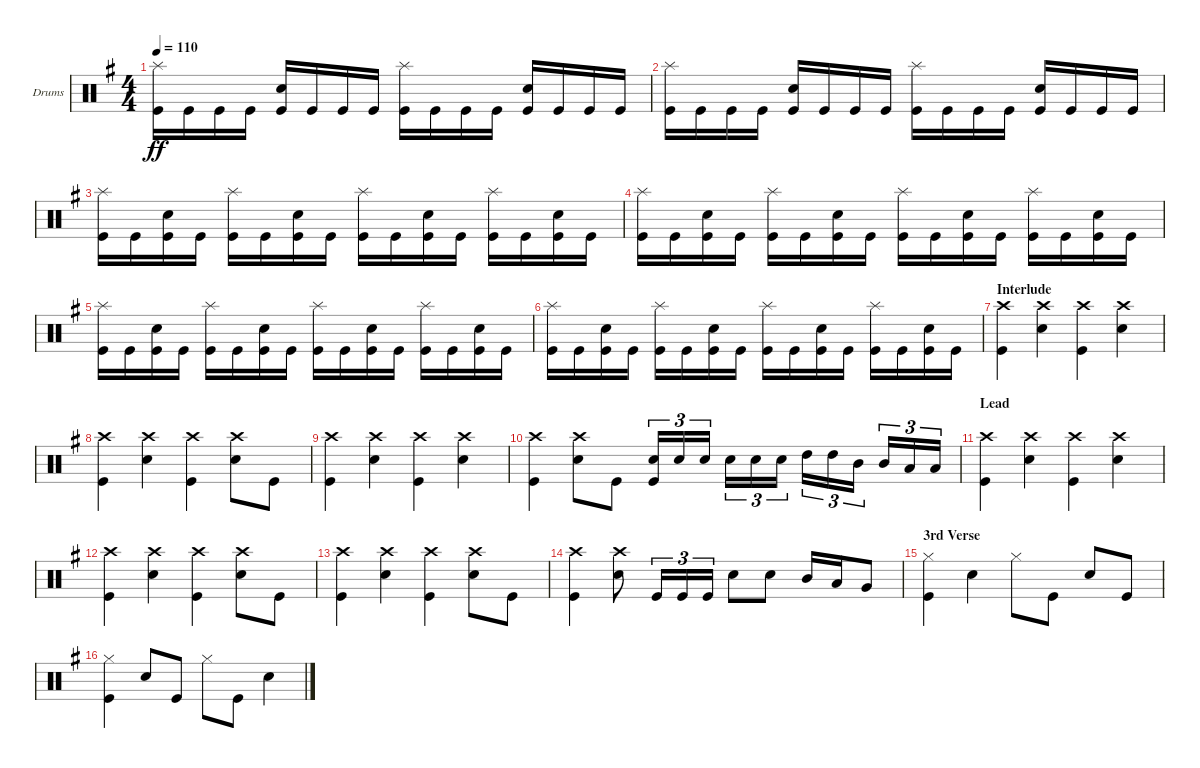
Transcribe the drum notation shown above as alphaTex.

\defaultSystemsLayout 4
\bracketExtendMode groupsimilarinstruments
\firstSystemTrackNameOrientation horizontal
\otherSystemsTrackNameOrientation horizontal
\track ("Drums" "Drums") {instrument percussion}
\staff {score}
\articulation defaults
\ts (4 4)
\tempo 110
\clef neutral
\ks eminor
("Kick (hit)" "Splash (hit)").16{dy ff} "Kick (hit)".16 "Kick (hit)".16 "Kick (hit)".16 ("Kick (hit)" "Snare (hit) 2").16 "Kick (hit)".16 "Kick (hit)".16 "Kick (hit)".16 ("Kick (hit)" "Splash (hit)").16 "Kick (hit)".16 "Kick (hit)".16 "Kick (hit)".16 ("Kick (hit)" "Snare (hit) 2").16 "Kick (hit)".16 "Kick (hit)".16 "Kick (hit)".16 |
("Kick (hit)" "Splash (hit)").16 "Kick (hit)".16 "Kick (hit)".16 "Kick (hit)".16 ("Kick (hit)" "Snare (hit) 2").16 "Kick (hit)".16 "Kick (hit)".16 "Kick (hit)".16 ("Kick (hit)" "Splash (hit)").16 "Kick (hit)".16 "Kick (hit)".16 "Kick (hit)".16 ("Kick (hit)" "Snare (hit) 2").16 "Kick (hit)".16 "Kick (hit)".16 "Kick (hit)".16 |
("Kick (hit)" "Splash (hit)").16 "Kick (hit)".16 ("Kick (hit)" "Snare (hit) 2").16 "Kick (hit)".16 ("Kick (hit)" "Splash (hit)").16 "Kick (hit)".16 ("Kick (hit)" "Snare (hit) 2").16 "Kick (hit)".16 ("Kick (hit)" "Splash (hit)").16 "Kick (hit)".16 ("Kick (hit)" "Snare (hit) 2").16 "Kick (hit)".16 ("Kick (hit)" "Splash (hit)").16 "Kick (hit)".16 ("Kick (hit)" "Snare (hit) 2").16 "Kick (hit)".16 |
("Kick (hit)" "Splash (hit)").16 "Kick (hit)".16 ("Kick (hit)" "Snare (hit) 2").16 "Kick (hit)".16 ("Kick (hit)" "Splash (hit)").16 "Kick (hit)".16 ("Kick (hit)" "Snare (hit) 2").16 "Kick (hit)".16 ("Kick (hit)" "Splash (hit)").16 "Kick (hit)".16 ("Kick (hit)" "Snare (hit) 2").16 "Kick (hit)".16 ("Kick (hit)" "Splash (hit)").16 "Kick (hit)".16 ("Kick (hit)" "Snare (hit) 2").16 "Kick (hit)".16 |
("Kick (hit)" "Splash (hit)").16 "Kick (hit)".16 ("Kick (hit)" "Snare (hit) 2").16 "Kick (hit)".16 ("Kick (hit)" "Splash (hit)").16 "Kick (hit)".16 ("Kick (hit)" "Snare (hit) 2").16 "Kick (hit)".16 ("Kick (hit)" "Splash (hit)").16 "Kick (hit)".16 ("Kick (hit)" "Snare (hit) 2").16 "Kick (hit)".16 ("Kick (hit)" "Splash (hit)").16 "Kick (hit)".16 ("Kick (hit)" "Snare (hit) 2").16 "Kick (hit)".16 |
("Kick (hit)" "Splash (hit)").16 "Kick (hit)".16 ("Kick (hit)" "Snare (hit) 2").16 "Kick (hit)".16 ("Kick (hit)" "Splash (hit)").16 "Kick (hit)".16 ("Kick (hit)" "Snare (hit) 2").16 "Kick (hit)".16 ("Kick (hit)" "Splash (hit)").16 "Kick (hit)".16 ("Kick (hit)" "Snare (hit) 2").16 "Kick (hit)".16 ("Kick (hit)" "Splash (hit)").16 "Kick (hit)".16 ("Kick (hit)" "Snare (hit) 2").16 "Kick (hit)".16 |
\section ("" "Interlude")
("Kick (hit)" "Crash high (hit)").4 ("Snare (hit) 2" "Crash high (hit)").4 ("Kick (hit)" "Crash high (hit)").4 ("Snare (hit) 2" "Crash high (hit)").4 |
("Kick (hit)" "Crash high (hit)").4 ("Crash high (hit)" "Snare (hit) 2").4 ("Kick (hit)" "Crash high (hit)").4 ("Crash high (hit)" "Snare (hit) 2").8 "Kick (hit)".8 |
("Kick (hit)" "Crash high (hit)").4 ("Crash high (hit)" "Snare (hit) 2").4 ("Kick (hit)" "Crash high (hit)").4 ("Crash high (hit)" "Snare (hit) 2").4 |
("Kick (hit)" "Crash high (hit)").4 ("Crash high (hit)" "Snare (hit) 2").8 "Kick (hit)".8 ("Snare (hit) 2" "Kick (hit)").16{tu (3 2)} "Snare (hit) 2".16{tu (3 2)} "Snare (hit) 2".16{tu (3 2)} "Snare (hit) 2".16{tu (3 2)} "Snare (hit) 2".16{tu (3 2)} "Snare (hit) 2".16{tu (3 2)} "High Tom (hit)".16{tu (3 2)} "High Tom (hit)".16{tu (3 2)} "Mid Tom (hit)".16{tu (3 2)} "Mid Tom (hit)".16{tu (3 2)} "Low Tom (hit)".16{tu (3 2)} "Low Tom (hit)".16{tu (3 2)} |
\section ("" "Lead")
("Kick (hit)" "Crash high (hit)").4 ("Snare (hit) 2" "Crash high (hit)").4 ("Kick (hit)" "Crash high (hit)").4 ("Snare (hit) 2" "Crash high (hit)").4 |
("Kick (hit)" "Crash high (hit)").4 ("Crash high (hit)" "Snare (hit) 2").4 ("Kick (hit)" "Crash high (hit)").4 ("Crash high (hit)" "Snare (hit) 2").8 "Kick (hit)".8 |
("Kick (hit)" "Crash high (hit)").4 ("Crash high (hit)" "Snare (hit) 2").4 ("Kick (hit)" "Crash high (hit)").4 ("Crash high (hit)" "Snare (hit) 2").8 "Kick (hit)".8 |
("Kick (hit)" "Crash high (hit)").4 ("Crash high (hit)" "Snare (hit) 2").8 "Kick (hit)".16{tu (3 2)} "Kick (hit)".16{tu (3 2)} "Kick (hit)".16{tu (3 2)} "Snare (hit) 2".8 "Snare (hit) 2".8 "Mid Tom (hit)".16 "Low Tom (hit)".16 "Very Low Tom (hit)".8 |
\section ("" "3rd Verse")
("Kick (hit)" "Hi-Hat (closed)").4 "Snare (hit) 2".4 "Hi-Hat (closed)".8 "Kick (hit)".8 "Snare (hit) 2".8 "Kick (hit)".8 |
("Kick (hit)" "Hi-Hat (closed)").4 "Snare (hit) 2".8 "Kick (hit)".8 "Hi-Hat (closed)".8 "Kick (hit)".8 "Snare (hit) 2".4
